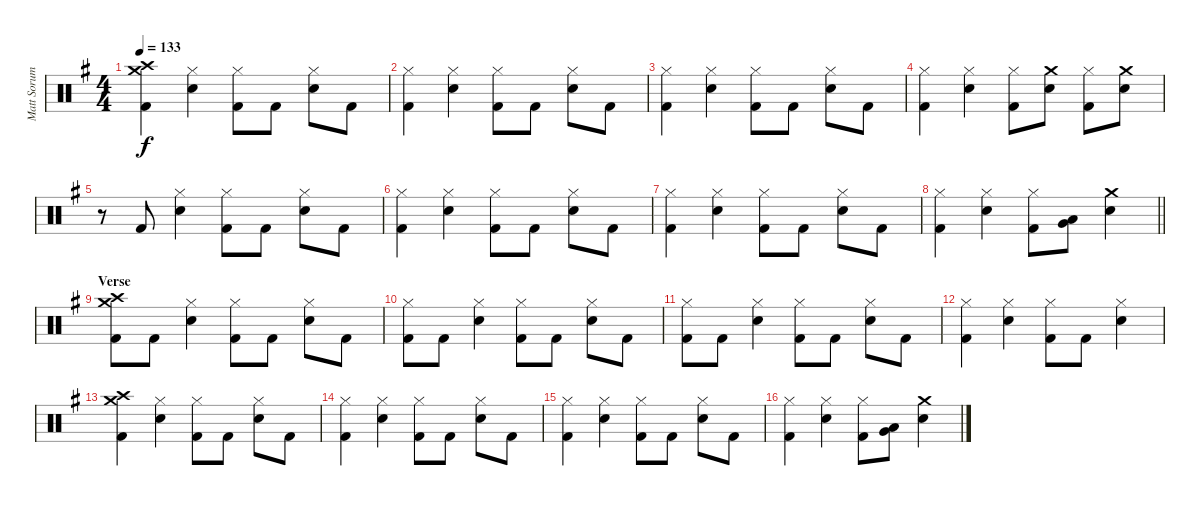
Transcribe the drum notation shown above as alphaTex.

\track ("Matt Sorum - Drums" "Matt Sorum") {instrument percussion}
\staff {score}
\articulation defaults
\ts (4 4)
\tempo 133
\clef neutral
\ks g
("Crash medium (hit)" "Crash high (hit)" "Kick (hit) 2").4{dy f} ("Hi-Hat (closed)" "Snare (hit) 2").4 ("Hi-Hat (closed)" "Kick (hit) 2").8 "Kick (hit) 2".8 ("Hi-Hat (closed)" "Snare (hit) 2").8 "Kick (hit) 2".8 |
("Hi-Hat (closed)" "Kick (hit) 2").4 ("Hi-Hat (closed)" "Snare (hit) 2").4 ("Hi-Hat (closed)" "Kick (hit) 2").8 "Kick (hit) 2".8 ("Hi-Hat (closed)" "Snare (hit) 2").8 "Kick (hit) 2".8 |
("Hi-Hat (closed)" "Kick (hit) 2").4 ("Hi-Hat (closed)" "Snare (hit) 2").4 ("Hi-Hat (closed)" "Kick (hit) 2").8 "Kick (hit) 2".8 ("Hi-Hat (closed)" "Snare (hit) 2").8 "Kick (hit) 2".8 |
("Hi-Hat (closed)" "Kick (hit) 2").4 ("Hi-Hat (closed)" "Snare (hit) 2").4 ("Hi-Hat (closed)" "Kick (hit) 2").8 ("Crash medium (hit)" "Snare (hit) 2").8 ("Hi-Hat (closed)" "Kick (hit) 2").8 ("Crash medium (hit)" "Snare (hit) 2").8 |
r.8 "Kick (hit) 2".8 ("Hi-Hat (closed)" "Snare (hit) 2").4 ("Hi-Hat (closed)" "Kick (hit) 2").8 "Kick (hit) 2".8 ("Hi-Hat (closed)" "Snare (hit) 2").8 "Kick (hit) 2".8 |
("Hi-Hat (closed)" "Kick (hit) 2").4 ("Hi-Hat (closed)" "Snare (hit) 2").4 ("Hi-Hat (closed)" "Kick (hit) 2").8 "Kick (hit) 2".8 ("Hi-Hat (closed)" "Snare (hit) 2").8 "Kick (hit) 2".8 |
("Hi-Hat (closed)" "Kick (hit) 2").4 ("Hi-Hat (closed)" "Snare (hit) 2").4 ("Hi-Hat (closed)" "Kick (hit) 2").8 "Kick (hit) 2".8 ("Hi-Hat (closed)" "Snare (hit) 2").8 "Kick (hit) 2".8 |
\barLineRight lightlight
("Hi-Hat (closed)" "Kick (hit) 2").4 ("Hi-Hat (closed)" "Snare (hit) 2").4 ("Hi-Hat (closed)" "Kick (hit) 2").8 ("Low Tom (hit)" "Very Low Tom (hit)").8 ("Crash medium (hit)" "Snare (hit) 2").4 |
\section ("" "Verse")
("Crash medium (hit)" "Crash high (hit)" "Kick (hit) 2").8 "Kick (hit) 2".8 ("Hi-Hat (closed)" "Snare (hit) 2").4 ("Hi-Hat (closed)" "Kick (hit) 2").8 "Kick (hit) 2".8 ("Hi-Hat (closed)" "Snare (hit) 2").8 "Kick (hit) 2".8 |
("Hi-Hat (closed)" "Kick (hit) 2").8 "Kick (hit) 2".8 ("Hi-Hat (closed)" "Snare (hit) 2").4 ("Hi-Hat (closed)" "Kick (hit) 2").8 "Kick (hit) 2".8 ("Hi-Hat (closed)" "Snare (hit) 2").8 "Kick (hit) 2".8 |
("Hi-Hat (closed)" "Kick (hit) 2").8 "Kick (hit) 2".8 ("Hi-Hat (closed)" "Snare (hit) 2").4 ("Hi-Hat (closed)" "Kick (hit) 2").8 "Kick (hit) 2".8 ("Hi-Hat (closed)" "Snare (hit) 2").8 "Kick (hit) 2".8 |
("Hi-Hat (closed)" "Kick (hit) 2").4 ("Hi-Hat (closed)" "Snare (hit) 2").4 ("Hi-Hat (closed)" "Kick (hit) 2").8 "Kick (hit) 2".8 ("Hi-Hat (closed)" "Snare (hit) 2").4 |
("Crash medium (hit)" "Crash high (hit)" "Kick (hit) 2").4 ("Hi-Hat (closed)" "Snare (hit) 2").4 ("Hi-Hat (closed)" "Kick (hit) 2").8 "Kick (hit) 2".8 ("Hi-Hat (closed)" "Snare (hit) 2").8 "Kick (hit) 2".8 |
("Hi-Hat (closed)" "Kick (hit) 2").4 ("Hi-Hat (closed)" "Snare (hit) 2").4 ("Hi-Hat (closed)" "Kick (hit) 2").8 "Kick (hit) 2".8 ("Hi-Hat (closed)" "Snare (hit) 2").8 "Kick (hit) 2".8 |
("Hi-Hat (closed)" "Kick (hit) 2").4 ("Hi-Hat (closed)" "Snare (hit) 2").4 ("Hi-Hat (closed)" "Kick (hit) 2").8 "Kick (hit) 2".8 ("Hi-Hat (closed)" "Snare (hit) 2").8 "Kick (hit) 2".8 |
("Hi-Hat (closed)" "Kick (hit) 2").4 ("Hi-Hat (closed)" "Snare (hit) 2").4 ("Hi-Hat (closed)" "Kick (hit) 2").8 ("Low Tom (hit)" "Very Low Tom (hit)").8 ("Crash medium (hit)" "Snare (hit) 2").4
